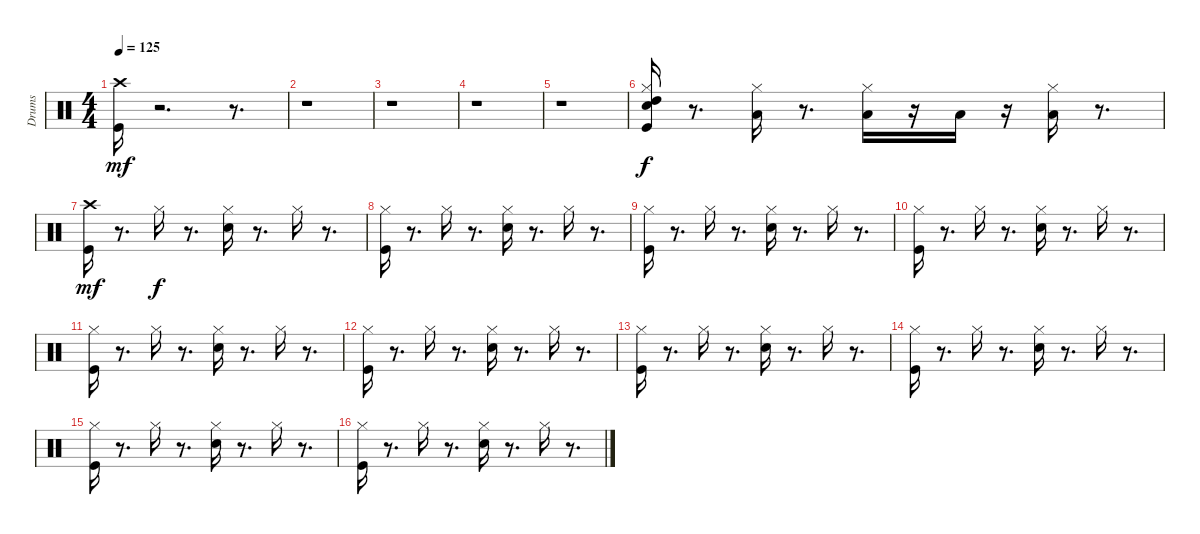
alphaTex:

\track ("Drums" "Drums") {instrument percussion}
\staff {score}
\articulation defaults
\ts (4 4)
\tempo 125
\clef neutral
\ks c
("Kick (hit)" "Crash high (hit)").16{dy mf} r.2{d} r.8{d} |
r.1 |
r.1 |
r.1 |
r.1 |
("Kick (hit)" "Snare (hit) 2" "Hi-Hat (closed)" "High Tom (hit)").16{dy f} r.8{d} ("Hi-Hat (closed)" "Low Tom (hit)").16 r.8{d} ("Hi-Hat (closed)" "Low Tom (hit)").16 r.16 "Low Floor Tom (hit)".16 r.16 ("Hi-Hat (closed)" "Low Floor Tom (hit)").16 r.8{d} |
("Kick (hit)" "Crash high (hit)").16{dy mf} r.8{d} "Hi-Hat (closed)".16{dy f} r.8{d} ("Snare (hit) 2" "Hi-Hat (closed)").16 r.8{d} "Hi-Hat (closed)".16 r.8{d} |
("Kick (hit)" "Hi-Hat (closed)").16 r.8{d} "Hi-Hat (closed)".16 r.8{d} ("Snare (hit) 2" "Hi-Hat (closed)").16 r.8{d} "Hi-Hat (closed)".16 r.8{d} |
("Kick (hit)" "Hi-Hat (closed)").16 r.8{d} "Hi-Hat (closed)".16 r.8{d} ("Snare (hit) 2" "Hi-Hat (closed)").16 r.8{d} "Hi-Hat (closed)".16 r.8{d} |
("Kick (hit)" "Hi-Hat (closed)").16 r.8{d} "Hi-Hat (closed)".16 r.8{d} ("Snare (hit) 2" "Hi-Hat (closed)").16 r.8{d} "Hi-Hat (closed)".16 r.8{d} |
("Kick (hit)" "Hi-Hat (closed)").16 r.8{d} "Hi-Hat (closed)".16 r.8{d} ("Snare (hit) 2" "Hi-Hat (closed)").16 r.8{d} "Hi-Hat (closed)".16 r.8{d} |
("Kick (hit)" "Hi-Hat (closed)").16 r.8{d} "Hi-Hat (closed)".16 r.8{d} ("Snare (hit) 2" "Hi-Hat (closed)").16 r.8{d} "Hi-Hat (closed)".16 r.8{d} |
("Kick (hit)" "Hi-Hat (closed)").16 r.8{d} "Hi-Hat (closed)".16 r.8{d} ("Snare (hit) 2" "Hi-Hat (closed)").16 r.8{d} "Hi-Hat (closed)".16 r.8{d} |
("Kick (hit)" "Hi-Hat (closed)").16 r.8{d} "Hi-Hat (closed)".16 r.8{d} ("Snare (hit) 2" "Hi-Hat (closed)").16 r.8{d} "Hi-Hat (closed)".16 r.8{d} |
("Kick (hit)" "Hi-Hat (closed)").16 r.8{d} "Hi-Hat (closed)".16 r.8{d} ("Snare (hit) 2" "Hi-Hat (closed)").16 r.8{d} "Hi-Hat (closed)".16 r.8{d} |
("Kick (hit)" "Hi-Hat (closed)").16 r.8{d} "Hi-Hat (closed)".16 r.8{d} ("Snare (hit) 2" "Hi-Hat (closed)").16 r.8{d} "Hi-Hat (closed)".16 r.8{d}
